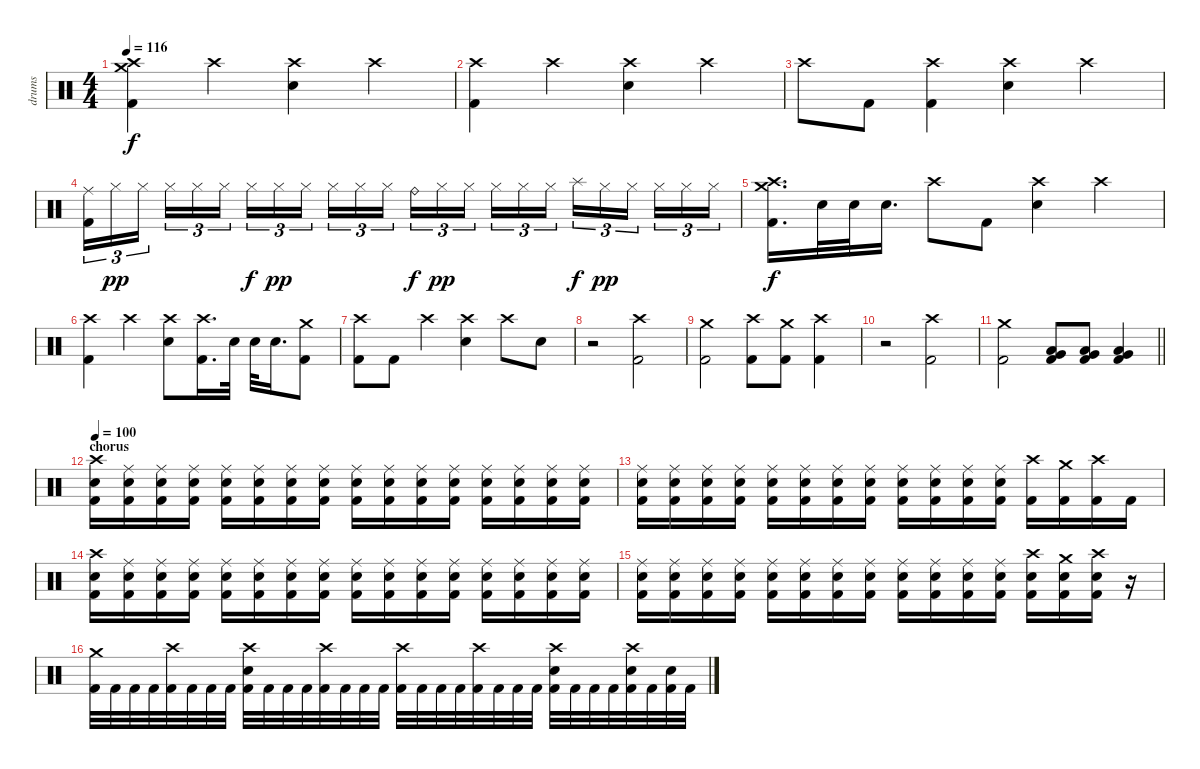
\track ("drums" "drums") {instrument percussion}
\staff {score}
\articulation defaults
\ts (4 4)
\tempo 116
\clef neutral
\ks c
("Crash medium (hit)" "Crash high (hit)" "Kick (hit) 2").4{dy f} "Crash high (hit)".4 ("Crash high (hit)" "Snare (hit) 2").4 "Crash high (hit)".4 |
("Crash high (hit)" "Kick (hit) 2").4 "Crash high (hit)".4 ("Crash high (hit)" "Snare (hit) 2").4 "Crash high (hit)".4 |
"Crash high (hit)".8 "Kick (hit) 2".8 ("Crash high (hit)" "Kick (hit) 2").4 ("Crash high (hit)" "Snare (hit) 2").4 "Crash high (hit)".4 |
("Ride (middle)" "Kick (hit) 2").16{tu (3 2)} "Hi-Hat (closed)".16{tu (3 2) dy pp} "Hi-Hat (closed)".16{tu (3 2) beam splitsecondary} "Hi-Hat (closed)".16{tu (3 2)} "Hi-Hat (closed)".16{tu (3 2)} "Hi-Hat (closed)".16{tu (3 2)} "Hi-Hat (closed)".16{tu (3 2) dy f} "Hi-Hat (closed)".16{tu (3 2) dy pp} "Hi-Hat (closed)".16{tu (3 2) beam splitsecondary} "Hi-Hat (closed)".16{tu (3 2)} "Hi-Hat (closed)".16{tu (3 2)} "Hi-Hat (closed)".16{tu (3 2)} "Ride (bell)".16{tu (3 2) dy f} "Hi-Hat (closed)".16{tu (3 2) dy pp} "Hi-Hat (closed)".16{tu (3 2) beam splitsecondary} "Hi-Hat (closed)".16{tu (3 2)} "Hi-Hat (closed)".16{tu (3 2)} "Hi-Hat (closed)".16{tu (3 2)} "Splash (hit)".16{tu (3 2) dy f} "Hi-Hat (closed)".16{tu (3 2) dy pp} "Hi-Hat (closed)".16{tu (3 2) beam splitsecondary} "Hi-Hat (closed)".16{tu (3 2)} "Hi-Hat (closed)".16{tu (3 2)} "Hi-Hat (closed)".16{tu (3 2)} |
("Crash medium (hit)" "Crash high (hit)" "Kick (hit) 2").16{d dy f} "Snare (hit) 2".32 "Snare (hit) 2".32 "Snare (hit) 2".16{d} "Crash high (hit)".8 "Kick (hit) 2".8 ("Crash high (hit)" "Snare (hit) 2").4 "Crash high (hit)".4 |
("Crash high (hit)" "Kick (hit) 2").4 "Crash high (hit)".4 ("Crash high (hit)" "Snare (hit) 2").8 ("Crash high (hit)" "Kick (hit) 2").16{d} "Snare (hit) 2".32 "Snare (hit) 2".32 "Snare (hit) 2".16{d} ("Crash medium (hit)" "Kick (hit) 2").8 |
("Crash high (hit)" "Kick (hit) 2").8 "Kick (hit) 2".8 "Crash high (hit)".4 ("Crash high (hit)" "Snare (hit) 2").4 "Crash high (hit)".8 "Snare (hit) 2".8 |
r.2 ("Kick (hit) 2" "Crash high (hit)").2 |
("Crash medium (hit)" "Kick (hit) 2").2 ("Kick (hit) 2" "Crash high (hit)").8 ("Kick (hit) 2" "Crash medium (hit)").8 ("Kick (hit) 2" "Crash high (hit)").4 |
r.2 ("Kick (hit) 2" "Crash high (hit)").2 |
\barLineRight lightlight
("Crash medium (hit)" "Kick (hit) 2").2 ("Kick (hit) 2" "Low Floor Tom (hit)" "Very Low Tom (hit)").8 ("Kick (hit) 2" "Low Floor Tom (hit)" "Very Low Tom (hit)").8 ("Kick (hit) 2" "Low Floor Tom (hit)" "Very Low Tom (hit)").4 |
\section ("" "chorus")
\tempo 100
("Crash high (hit)" "Snare (hit) 2" "Kick (hit) 2").16 ("Ride (middle)" "Snare (hit) 2" "Kick (hit) 2").16 ("Ride (middle)" "Snare (hit) 2" "Kick (hit) 2").16 ("Ride (middle)" "Snare (hit) 2" "Kick (hit) 2").16 ("Ride (middle)" "Snare (hit) 2" "Kick (hit) 2").16 ("Ride (middle)" "Snare (hit) 2" "Kick (hit) 2").16 ("Ride (middle)" "Snare (hit) 2" "Kick (hit) 2").16 ("Ride (middle)" "Snare (hit) 2" "Kick (hit) 2").16 ("Ride (middle)" "Snare (hit) 2" "Kick (hit) 2").16 ("Ride (middle)" "Snare (hit) 2" "Kick (hit) 2").16 ("Ride (middle)" "Snare (hit) 2" "Kick (hit) 2").16 ("Ride (middle)" "Snare (hit) 2" "Kick (hit) 2").16 ("Ride (middle)" "Snare (hit) 2" "Kick (hit) 2").16 ("Ride (middle)" "Snare (hit) 2" "Kick (hit) 2").16 ("Ride (middle)" "Snare (hit) 2" "Kick (hit) 2").16 ("Ride (middle)" "Snare (hit) 2" "Kick (hit) 2").16 |
("Ride (middle)" "Snare (hit) 2" "Kick (hit) 2").16 ("Ride (middle)" "Snare (hit) 2" "Kick (hit) 2").16 ("Ride (middle)" "Snare (hit) 2" "Kick (hit) 2").16 ("Ride (middle)" "Snare (hit) 2" "Kick (hit) 2").16 ("Ride (middle)" "Snare (hit) 2" "Kick (hit) 2").16 ("Ride (middle)" "Snare (hit) 2" "Kick (hit) 2").16 ("Ride (middle)" "Snare (hit) 2" "Kick (hit) 2").16 ("Ride (middle)" "Snare (hit) 2" "Kick (hit) 2").16 ("Ride (middle)" "Snare (hit) 2" "Kick (hit) 2").16 ("Ride (middle)" "Snare (hit) 2" "Kick (hit) 2").16 ("Ride (middle)" "Snare (hit) 2" "Kick (hit) 2").16 ("Ride (middle)" "Snare (hit) 2" "Kick (hit) 2").16 ("Crash high (hit)" "Kick (hit) 2").16 ("Crash medium (hit)" "Kick (hit) 2").16 ("Crash high (hit)" "Kick (hit) 2").16 "Kick (hit) 2".16 |
("Crash high (hit)" "Snare (hit) 2" "Kick (hit) 2").16 ("Ride (middle)" "Snare (hit) 2" "Kick (hit) 2").16 ("Ride (middle)" "Snare (hit) 2" "Kick (hit) 2").16 ("Ride (middle)" "Snare (hit) 2" "Kick (hit) 2").16 ("Ride (middle)" "Snare (hit) 2" "Kick (hit) 2").16 ("Ride (middle)" "Snare (hit) 2" "Kick (hit) 2").16 ("Ride (middle)" "Snare (hit) 2" "Kick (hit) 2").16 ("Ride (middle)" "Snare (hit) 2" "Kick (hit) 2").16 ("Ride (middle)" "Snare (hit) 2" "Kick (hit) 2").16 ("Ride (middle)" "Snare (hit) 2" "Kick (hit) 2").16 ("Ride (middle)" "Snare (hit) 2" "Kick (hit) 2").16 ("Ride (middle)" "Snare (hit) 2" "Kick (hit) 2").16 ("Ride (middle)" "Snare (hit) 2" "Kick (hit) 2").16 ("Ride (middle)" "Snare (hit) 2" "Kick (hit) 2").16 ("Ride (middle)" "Snare (hit) 2" "Kick (hit) 2").16 ("Ride (middle)" "Snare (hit) 2" "Kick (hit) 2").16 |
("Ride (middle)" "Snare (hit) 2" "Kick (hit) 2").16 ("Ride (middle)" "Snare (hit) 2" "Kick (hit) 2").16 ("Ride (middle)" "Snare (hit) 2" "Kick (hit) 2").16 ("Ride (middle)" "Snare (hit) 2" "Kick (hit) 2").16 ("Ride (middle)" "Snare (hit) 2" "Kick (hit) 2").16 ("Ride (middle)" "Snare (hit) 2" "Kick (hit) 2").16 ("Ride (middle)" "Snare (hit) 2" "Kick (hit) 2").16 ("Ride (middle)" "Snare (hit) 2" "Kick (hit) 2").16 ("Ride (middle)" "Snare (hit) 2" "Kick (hit) 2").16 ("Ride (middle)" "Snare (hit) 2" "Kick (hit) 2").16 ("Ride (middle)" "Snare (hit) 2" "Kick (hit) 2").16 ("Ride (middle)" "Snare (hit) 2" "Kick (hit) 2").16 ("Crash high (hit)" "Snare (hit) 2" "Kick (hit) 2").16 ("Crash medium (hit)" "Snare (hit) 2" "Kick (hit) 2").16 ("Crash high (hit)" "Snare (hit) 2" "Kick (hit) 2").16 r.16 |
("Crash medium (hit)" "Kick (hit) 2").32 "Kick (hit) 2".32 "Kick (hit) 2".32 "Kick (hit) 2".32 ("Crash high (hit)" "Kick (hit) 2").32 "Kick (hit) 2".32 "Kick (hit) 2".32 "Kick (hit) 2".32 ("Crash high (hit)" "Snare (hit) 2" "Kick (hit) 2").32 "Kick (hit) 2".32 "Kick (hit) 2".32 "Kick (hit) 2".32 ("Crash high (hit)" "Kick (hit) 2").32 "Kick (hit) 2".32 "Kick (hit) 2".32 "Kick (hit) 2".32 ("Crash high (hit)" "Kick (hit) 2").32 "Kick (hit) 2".32 "Kick (hit) 2".32 "Kick (hit) 2".32 ("Crash high (hit)" "Kick (hit) 2").32 "Kick (hit) 2".32 "Kick (hit) 2".32 "Kick (hit) 2".32 ("Crash high (hit)" "Snare (hit) 2" "Kick (hit) 2").32 "Kick (hit) 2".32 "Kick (hit) 2".32 "Kick (hit) 2".32 ("Crash high (hit)" "Snare (hit) 2" "Kick (hit) 2").32 "Kick (hit) 2".32 ("Snare (hit) 2" "Kick (hit) 2").32 "Kick (hit) 2".32
